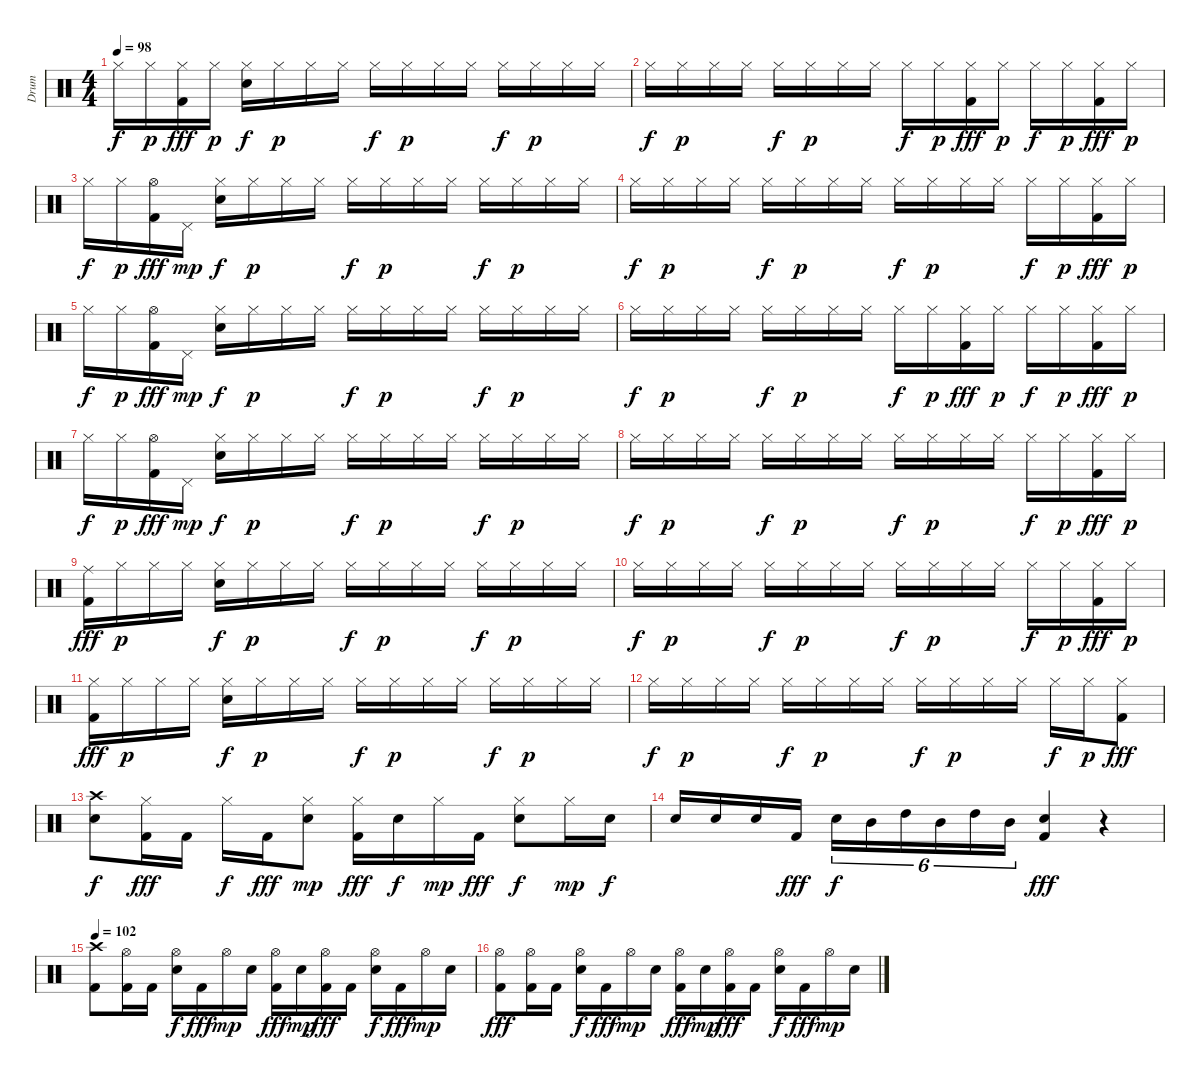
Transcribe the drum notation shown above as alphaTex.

\track ("Drum" "Drum") {instrument percussion}
\staff {score}
\articulation defaults
\ts (4 4)
\tempo 98
\clef neutral
\ks c "Hi-Hat (closed)".16{dy f} "Hi-Hat (closed)".16{dy p}
("Hi-Hat (closed)" "Kick (hit) 2").16{dy fff} "Hi-Hat (closed)".16{dy p} ("Hi-Hat (closed)" "Electric Snare (hit)").16{dy f} "Hi-Hat (closed)".16{dy p} "Hi-Hat (closed)".16 "Hi-Hat (closed)".16 "Hi-Hat (closed)".16{dy f} "Hi-Hat (closed)".16{dy p} "Hi-Hat (closed)".16 "Hi-Hat (closed)".16 "Hi-Hat (closed)".16{dy f} "Hi-Hat (closed)".16{dy p} "Hi-Hat (closed)".16 "Hi-Hat (closed)".16 |
"Hi-Hat (closed)".16{dy f} "Hi-Hat (closed)".16{dy p} "Hi-Hat (closed)".16 "Hi-Hat (closed)".16 "Hi-Hat (closed)".16{dy f} "Hi-Hat (closed)".16{dy p} "Hi-Hat (closed)".16 "Hi-Hat (closed)".16 "Hi-Hat (closed)".16{dy f} "Hi-Hat (closed)".16{dy p} ("Hi-Hat (closed)" "Kick (hit) 2").16{dy fff} "Hi-Hat (closed)".16{dy p} "Hi-Hat (closed)".16{dy f} "Hi-Hat (closed)".16{dy p} ("Hi-Hat (closed)" "Kick (hit) 2").16{dy fff} "Hi-Hat (closed)".16{dy p} |
"Hi-Hat (closed)".16{dy f} "Hi-Hat (closed)".16{dy p} ("Hi-Hat (open)" "Kick (hit) 2").16{dy fff} "Pedal Hi-Hat (hit)".16{dy mp} ("Hi-Hat (closed)" "Electric Snare (hit)").16{dy f} "Hi-Hat (closed)".16{dy p} "Hi-Hat (closed)".16 "Hi-Hat (closed)".16 "Hi-Hat (closed)".16{dy f} "Hi-Hat (closed)".16{dy p} "Hi-Hat (closed)".16 "Hi-Hat (closed)".16 "Hi-Hat (closed)".16{dy f} "Hi-Hat (closed)".16{dy p} "Hi-Hat (closed)".16 "Hi-Hat (closed)".16 |
"Hi-Hat (closed)".16{dy f} "Hi-Hat (closed)".16{dy p} "Hi-Hat (closed)".16 "Hi-Hat (closed)".16 "Hi-Hat (closed)".16{dy f} "Hi-Hat (closed)".16{dy p} "Hi-Hat (closed)".16 "Hi-Hat (closed)".16 "Hi-Hat (closed)".16{dy f} "Hi-Hat (closed)".16{dy p} "Hi-Hat (closed)".16 "Hi-Hat (closed)".16 "Hi-Hat (closed)".16{dy f} "Hi-Hat (closed)".16{dy p} ("Hi-Hat (closed)" "Kick (hit) 2").16{dy fff} "Hi-Hat (closed)".16{dy p} |
"Hi-Hat (closed)".16{dy f} "Hi-Hat (closed)".16{dy p} ("Hi-Hat (open)" "Kick (hit) 2").16{dy fff} "Pedal Hi-Hat (hit)".16{dy mp} ("Hi-Hat (closed)" "Electric Snare (hit)").16{dy f} "Hi-Hat (closed)".16{dy p} "Hi-Hat (closed)".16 "Hi-Hat (closed)".16 "Hi-Hat (closed)".16{dy f} "Hi-Hat (closed)".16{dy p} "Hi-Hat (closed)".16 "Hi-Hat (closed)".16 "Hi-Hat (closed)".16{dy f} "Hi-Hat (closed)".16{dy p} "Hi-Hat (closed)".16 "Hi-Hat (closed)".16 |
"Hi-Hat (closed)".16{dy f} "Hi-Hat (closed)".16{dy p} "Hi-Hat (closed)".16 "Hi-Hat (closed)".16 "Hi-Hat (closed)".16{dy f} "Hi-Hat (closed)".16{dy p} "Hi-Hat (closed)".16 "Hi-Hat (closed)".16 "Hi-Hat (closed)".16{dy f} "Hi-Hat (closed)".16{dy p} ("Hi-Hat (closed)" "Kick (hit) 2").16{dy fff} "Hi-Hat (closed)".16{dy p} "Hi-Hat (closed)".16{dy f} "Hi-Hat (closed)".16{dy p} ("Hi-Hat (closed)" "Kick (hit) 2").16{dy fff} "Hi-Hat (closed)".16{dy p} |
"Hi-Hat (closed)".16{dy f} "Hi-Hat (closed)".16{dy p} ("Hi-Hat (open)" "Kick (hit) 2").16{dy fff} "Pedal Hi-Hat (hit)".16{dy mp} ("Hi-Hat (closed)" "Electric Snare (hit)").16{dy f} "Hi-Hat (closed)".16{dy p} "Hi-Hat (closed)".16 "Hi-Hat (closed)".16 "Hi-Hat (closed)".16{dy f} "Hi-Hat (closed)".16{dy p} "Hi-Hat (closed)".16 "Hi-Hat (closed)".16 "Hi-Hat (closed)".16{dy f} "Hi-Hat (closed)".16{dy p} "Hi-Hat (closed)".16 "Hi-Hat (closed)".16 |
"Hi-Hat (closed)".16{dy f} "Hi-Hat (closed)".16{dy p} "Hi-Hat (closed)".16 "Hi-Hat (closed)".16 "Hi-Hat (closed)".16{dy f} "Hi-Hat (closed)".16{dy p} "Hi-Hat (closed)".16 "Hi-Hat (closed)".16 "Hi-Hat (closed)".16{dy f} "Hi-Hat (closed)".16{dy p} "Hi-Hat (closed)".16 "Hi-Hat (closed)".16 "Hi-Hat (closed)".16{dy f} "Hi-Hat (closed)".16{dy p} ("Hi-Hat (closed)" "Kick (hit) 2").16{dy fff} "Hi-Hat (closed)".16{dy p} |
("Ride (middle)" "Kick (hit) 2").16{dy fff} "Hi-Hat (closed)".16{dy p} "Hi-Hat (closed)".16 "Hi-Hat (closed)".16 ("Hi-Hat (closed)" "Electric Snare (hit)").16{dy f} "Hi-Hat (closed)".16{dy p} "Hi-Hat (closed)".16 "Hi-Hat (closed)".16 "Hi-Hat (closed)".16{dy f} "Hi-Hat (closed)".16{dy p} "Hi-Hat (closed)".16 "Hi-Hat (closed)".16 "Hi-Hat (closed)".16{dy f} "Hi-Hat (closed)".16{dy p} "Hi-Hat (closed)".16 "Hi-Hat (closed)".16 |
"Hi-Hat (closed)".16{dy f} "Hi-Hat (closed)".16{dy p} "Hi-Hat (closed)".16 "Hi-Hat (closed)".16 "Hi-Hat (closed)".16{dy f} "Hi-Hat (closed)".16{dy p} "Hi-Hat (closed)".16 "Hi-Hat (closed)".16 "Hi-Hat (closed)".16{dy f} "Hi-Hat (closed)".16{dy p} "Hi-Hat (closed)".16 "Hi-Hat (closed)".16 "Hi-Hat (closed)".16{dy f} "Hi-Hat (closed)".16{dy p} ("Hi-Hat (closed)" "Kick (hit) 2").16{dy fff} "Hi-Hat (closed)".16{dy p} |
("Hi-Hat (closed)" "Kick (hit) 2").16{dy fff} "Hi-Hat (closed)".16{dy p} "Hi-Hat (closed)".16 "Hi-Hat (closed)".16 ("Hi-Hat (closed)" "Electric Snare (hit)").16{dy f} "Hi-Hat (closed)".16{dy p} "Hi-Hat (closed)".16 "Hi-Hat (closed)".16 "Hi-Hat (closed)".16{dy f} "Hi-Hat (closed)".16{dy p} "Hi-Hat (closed)".16 "Hi-Hat (closed)".16 "Hi-Hat (closed)".16{dy f} "Hi-Hat (closed)".16{dy p} "Hi-Hat (closed)".16 "Hi-Hat (closed)".16 |
"Hi-Hat (closed)".16{dy f} "Hi-Hat (closed)".16{dy p} "Hi-Hat (closed)".16 "Hi-Hat (closed)".16 "Hi-Hat (closed)".16{dy f} "Hi-Hat (closed)".16{dy p} "Hi-Hat (closed)".16 "Hi-Hat (closed)".16 "Hi-Hat (closed)".16{dy f} "Hi-Hat (closed)".16{dy p} "Hi-Hat (closed)".16 "Hi-Hat (closed)".16 "Hi-Hat (closed)".16{dy f} "Hi-Hat (closed)".16{dy p} ("Hi-Hat (closed)" "Kick (hit) 2").8{dy fff} |
("Crash high (hit)" "Electric Snare (hit)").8{dy f} ("Hi-Hat (closed)" "Kick (hit) 2").16{dy fff} "Kick (hit) 2".16 "Hi-Hat (closed)".16{dy f} "Kick (hit) 2".16{dy fff} ("Hi-Hat (closed)" "Electric Snare (hit)").8{dy mp} ("Hi-Hat (closed)" "Kick (hit) 2").16{dy fff} "Electric Snare (hit)".16{dy f} "Hi-Hat (closed)".16{dy mp} "Kick (hit) 2".16{dy fff} ("Hi-Hat (closed)" "Electric Snare (hit)").8{dy f} "Hi-Hat (closed)".16{dy mp} "Electric Snare (hit)".16{dy f} |
"Electric Snare (hit)".16 "Electric Snare (hit)".16 "Electric Snare (hit)".16 "Kick (hit) 2".16{dy fff} "Electric Snare (hit)".16{tu (6 4) dy f} "Mid Tom (hit)".16{tu (6 4)} "High Tom (hit)".16{tu (6 4)} "Mid Tom (hit)".16{tu (6 4)} "High Tom (hit)".16{tu (6 4)} "Mid Tom (hit)".16{tu (6 4)} ("Electric Snare (hit)" "Kick (hit) 2").4{dy fff} r.4 |
\tempo 114
\tempo 102
("Crash high (hit)" "Kick (hit) 2").8 ("Hi-Hat (open)" "Kick (hit) 2").16 "Kick (hit) 2".16 ("Hi-Hat (open)" "Electric Snare (hit)").16{dy f} "Kick (hit) 2".16{dy fff} "Hi-Hat (open)".16{dy mp} "Electric Snare (hit)".16 ("Hi-Hat (open)" "Kick (hit) 2").16{dy fff} "Electric Snare (hit)".16{dy mp} ("Hi-Hat (open)" "Kick (hit) 2").16{dy fff} "Kick (hit) 2".16 ("Hi-Hat (open)" "Electric Snare (hit)").16{dy f} "Kick (hit) 2".16{dy fff} "Hi-Hat (open)".16{dy mp} "Electric Snare (hit)".16 |
("Hi-Hat (open)" "Kick (hit) 2").8{dy fff} ("Hi-Hat (open)" "Kick (hit) 2").16 "Kick (hit) 2".16 ("Hi-Hat (open)" "Electric Snare (hit)").16{dy f} "Kick (hit) 2".16{dy fff} "Hi-Hat (open)".16{dy mp} "Electric Snare (hit)".16 ("Hi-Hat (open)" "Kick (hit) 2").16{dy fff} "Electric Snare (hit)".16{dy mp} ("Hi-Hat (open)" "Kick (hit) 2").16{dy fff} "Kick (hit) 2".16 ("Hi-Hat (open)" "Electric Snare (hit)").16{dy f} "Kick (hit) 2".16{dy fff} "Hi-Hat (open)".16{dy mp} "Electric Snare (hit)".16
